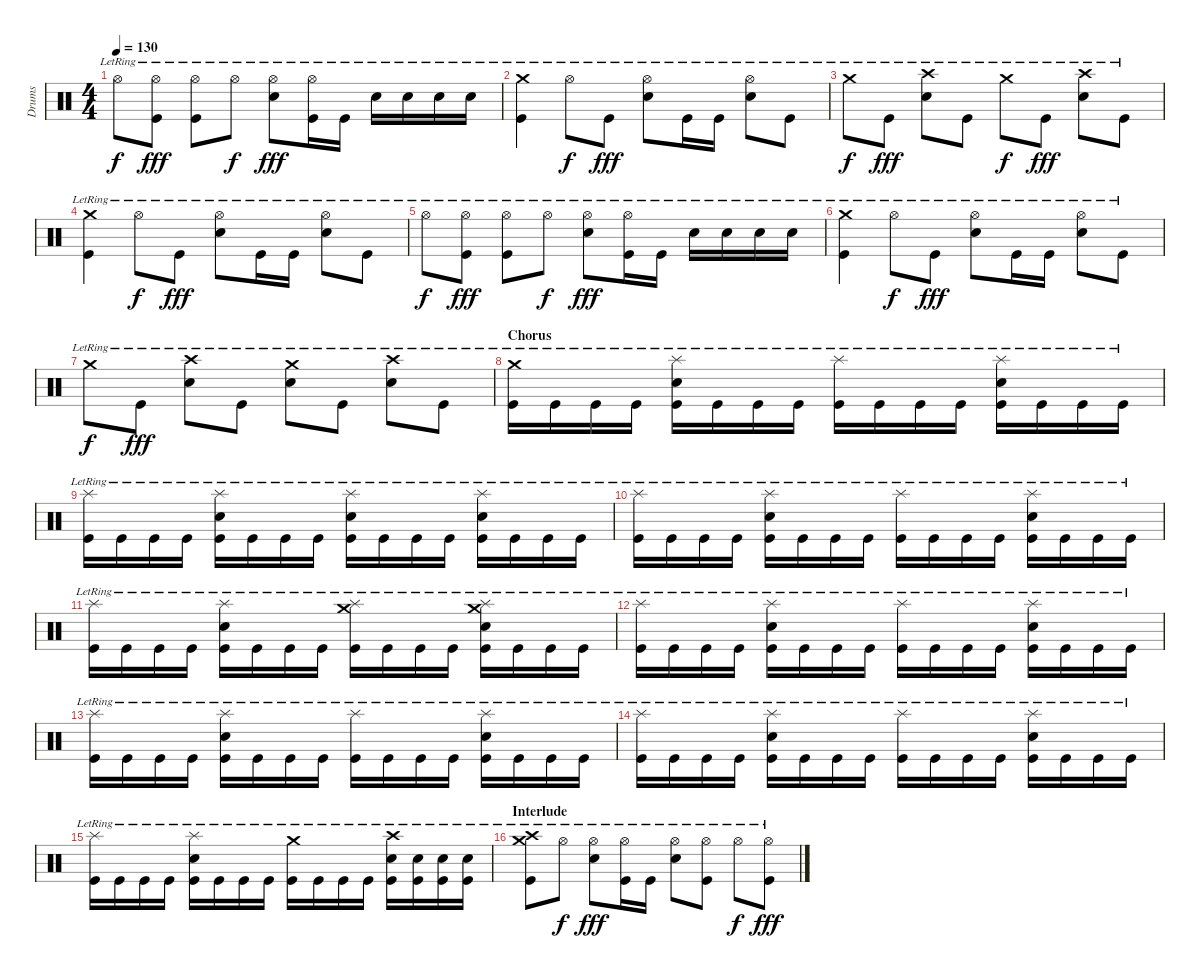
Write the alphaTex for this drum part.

\track ("Drums" "Drums") {instrument percussion}
\staff {score}
\articulation defaults
\ts (4 4)
\tempo 130
\clef neutral
\ks c "Hi-Hat (open)"{lr}.8{dy f}
("Kick (hit)"{lr} "Hi-Hat (open)"{lr}).8{dy fff} ("Kick (hit)"{lr} "Hi-Hat (open)"{lr}).8 "Hi-Hat (open)"{lr}.8{dy f} ("Snare (hit) 2"{lr} "Hi-Hat (open)"{lr}).8{dy fff} ("Kick (hit)"{lr} "Hi-Hat (open)"{lr}).16 "Kick (hit)"{lr}.16 "Snare (hit) 2"{lr}.16 "Snare (hit) 2"{lr}.16 "Snare (hit) 2"{lr}.16 "Snare (hit) 2"{lr}.16 |
("Kick (hit)"{lr} "Crash medium (hit)"{lr}).4 "Hi-Hat (open)"{lr}.8{dy f} "Kick (hit)"{lr}.8{dy fff} ("Snare (hit) 2"{lr} "Hi-Hat (open)"{lr}).8 "Kick (hit)"{lr}.16 "Kick (hit)"{lr}.16 ("Snare (hit) 2"{lr} "Hi-Hat (open)"{lr}).8 "Kick (hit)"{lr}.8 |
"Crash medium (hit)"{lr}.8{dy f} "Kick (hit)"{lr}.8{dy fff} ("Snare (hit) 2"{lr} "Crash high (hit)"{lr}).8 "Kick (hit)"{lr}.8 "Crash medium (hit)"{lr}.8{dy f} "Kick (hit)"{lr}.8{dy fff} ("Snare (hit) 2"{lr} "Crash high (hit)"{lr}).8 "Kick (hit)"{lr}.8 |
("Kick (hit)"{lr} "Crash medium (hit)"{lr}).4 "Hi-Hat (open)"{lr}.8{dy f} "Kick (hit)"{lr}.8{dy fff} ("Snare (hit) 2"{lr} "Hi-Hat (open)"{lr}).8 "Kick (hit)"{lr}.16 "Kick (hit)"{lr}.16 ("Snare (hit) 2"{lr} "Hi-Hat (open)"{lr}).8 "Kick (hit)"{lr}.8 |
"Hi-Hat (open)"{lr}.8{dy f} ("Kick (hit)"{lr} "Hi-Hat (open)"{lr}).8{dy fff} ("Kick (hit)"{lr} "Hi-Hat (open)"{lr}).8 "Hi-Hat (open)"{lr}.8{dy f} ("Snare (hit) 2"{lr} "Hi-Hat (open)"{lr}).8{dy fff} ("Kick (hit)"{lr} "Hi-Hat (open)"{lr}).16 "Kick (hit)"{lr}.16 "Snare (hit) 2"{lr}.16 "Snare (hit) 2"{lr}.16 "Snare (hit) 2"{lr}.16 "Snare (hit) 2"{lr}.16 |
("Kick (hit)"{lr} "Crash medium (hit)"{lr}).4 "Hi-Hat (open)"{lr}.8{dy f} "Kick (hit)"{lr}.8{dy fff} ("Snare (hit) 2"{lr} "Hi-Hat (open)"{lr}).8 "Kick (hit)"{lr}.16 "Kick (hit)"{lr}.16 ("Snare (hit) 2"{lr} "Hi-Hat (open)"{lr}).8 "Kick (hit)"{lr}.8 |
"Crash medium (hit)"{lr}.8{dy f} "Kick (hit)"{lr}.8{dy fff} ("Snare (hit) 2"{lr} "Crash high (hit)"{lr}).8 "Kick (hit)"{lr}.8 ("Snare (hit) 2"{lr} "Crash medium (hit)"{lr}).8 "Kick (hit)"{lr}.8 ("Snare (hit) 2"{lr} "Crash high (hit)"{lr}).8 "Kick (hit)"{lr}.8 |
\section ("" "Chorus")
("Kick (hit)"{lr} "Crash medium (hit)"{lr}).16 "Kick (hit)"{lr}.16 "Kick (hit)"{lr}.16 "Kick (hit)"{lr}.16 ("Kick (hit)"{lr} "Snare (hit) 2"{lr} "Splash (hit)"{lr}).16 "Kick (hit)"{lr}.16 "Kick (hit)"{lr}.16 "Kick (hit)"{lr}.16 ("Kick (hit)"{lr} "Splash (hit)"{lr}).16 "Kick (hit)"{lr}.16 "Kick (hit)"{lr}.16 "Kick (hit)"{lr}.16 ("Kick (hit)"{lr} "Snare (hit) 2"{lr} "Splash (hit)"{lr}).16 "Kick (hit)"{lr}.16 "Kick (hit)"{lr}.16 "Kick (hit)"{lr}.16 |
("Kick (hit)"{lr} "Splash (hit)"{lr}).16 "Kick (hit)"{lr}.16 "Kick (hit)"{lr}.16 "Kick (hit)"{lr}.16 ("Kick (hit)"{lr} "Snare (hit) 2"{lr} "Splash (hit)"{lr}).16 "Kick (hit)"{lr}.16 "Kick (hit)"{lr}.16 "Kick (hit)"{lr}.16 ("Kick (hit)"{lr} "Snare (hit) 2"{lr} "Splash (hit)"{lr}).16 "Kick (hit)"{lr}.16 "Kick (hit)"{lr}.16 "Kick (hit)"{lr}.16 ("Kick (hit)"{lr} "Snare (hit) 2"{lr} "Splash (hit)"{lr}).16 "Kick (hit)"{lr}.16 "Kick (hit)"{lr}.16 "Kick (hit)"{lr}.16 |
("Kick (hit)"{lr} "Splash (hit)"{lr}).16 "Kick (hit)"{lr}.16 "Kick (hit)"{lr}.16 "Kick (hit)"{lr}.16 ("Kick (hit)"{lr} "Snare (hit) 2"{lr} "Splash (hit)"{lr}).16 "Kick (hit)"{lr}.16 "Kick (hit)"{lr}.16 "Kick (hit)"{lr}.16 ("Kick (hit)"{lr} "Splash (hit)"{lr}).16 "Kick (hit)"{lr}.16 "Kick (hit)"{lr}.16 "Kick (hit)"{lr}.16 ("Kick (hit)"{lr} "Snare (hit) 2"{lr} "Splash (hit)"{lr}).16 "Kick (hit)"{lr}.16 "Kick (hit)"{lr}.16 "Kick (hit)"{lr}.16 |
("Kick (hit)"{lr} "Splash (hit)"{lr}).16 "Kick (hit)"{lr}.16 "Kick (hit)"{lr}.16 "Kick (hit)"{lr}.16 ("Kick (hit)"{lr} "Snare (hit) 2"{lr} "Splash (hit)"{lr}).16 "Kick (hit)"{lr}.16 "Kick (hit)"{lr}.16 "Kick (hit)"{lr}.16 ("Kick (hit)"{lr} "Splash (hit)"{lr} "Crash medium (hit)"{lr}).16 "Kick (hit)"{lr}.16 "Kick (hit)"{lr}.16 "Kick (hit)"{lr}.16 ("Kick (hit)"{lr} "Snare (hit) 2"{lr} "Splash (hit)"{lr} "Crash medium (hit)"{lr}).16 "Kick (hit)"{lr}.16 "Kick (hit)"{lr}.16 "Kick (hit)"{lr}.16 |
("Kick (hit)"{lr} "Splash (hit)"{lr}).16 "Kick (hit)"{lr}.16 "Kick (hit)"{lr}.16 "Kick (hit)"{lr}.16 ("Kick (hit)"{lr} "Snare (hit) 2"{lr} "Splash (hit)"{lr}).16 "Kick (hit)"{lr}.16 "Kick (hit)"{lr}.16 "Kick (hit)"{lr}.16 ("Kick (hit)"{lr} "Splash (hit)"{lr}).16 "Kick (hit)"{lr}.16 "Kick (hit)"{lr}.16 "Kick (hit)"{lr}.16 ("Kick (hit)"{lr} "Snare (hit) 2"{lr} "Splash (hit)"{lr}).16 "Kick (hit)"{lr}.16 "Kick (hit)"{lr}.16 "Kick (hit)"{lr}.16 |
("Kick (hit)"{lr} "Splash (hit)"{lr}).16 "Kick (hit)"{lr}.16 "Kick (hit)"{lr}.16 "Kick (hit)"{lr}.16 ("Kick (hit)"{lr} "Snare (hit) 2"{lr} "Splash (hit)"{lr}).16 "Kick (hit)"{lr}.16 "Kick (hit)"{lr}.16 "Kick (hit)"{lr}.16 ("Kick (hit)"{lr} "Splash (hit)"{lr}).16 "Kick (hit)"{lr}.16 "Kick (hit)"{lr}.16 "Kick (hit)"{lr}.16 ("Kick (hit)"{lr} "Snare (hit) 2"{lr} "Splash (hit)"{lr}).16 "Kick (hit)"{lr}.16 "Kick (hit)"{lr}.16 "Kick (hit)"{lr}.16 |
("Kick (hit)"{lr} "Splash (hit)"{lr}).16 "Kick (hit)"{lr}.16 "Kick (hit)"{lr}.16 "Kick (hit)"{lr}.16 ("Kick (hit)"{lr} "Snare (hit) 2"{lr} "Splash (hit)"{lr}).16 "Kick (hit)"{lr}.16 "Kick (hit)"{lr}.16 "Kick (hit)"{lr}.16 ("Kick (hit)"{lr} "Splash (hit)"{lr}).16 "Kick (hit)"{lr}.16 "Kick (hit)"{lr}.16 "Kick (hit)"{lr}.16 ("Kick (hit)"{lr} "Snare (hit) 2"{lr} "Splash (hit)"{lr}).16 "Kick (hit)"{lr}.16 "Kick (hit)"{lr}.16 "Kick (hit)"{lr}.16 |
("Kick (hit)"{lr} "Splash (hit)"{lr}).16 "Kick (hit)"{lr}.16 "Kick (hit)"{lr}.16 "Kick (hit)"{lr}.16 ("Kick (hit)"{lr} "Snare (hit) 2"{lr} "Splash (hit)"{lr}).16 "Kick (hit)"{lr}.16 "Kick (hit)"{lr}.16 "Kick (hit)"{lr}.16 ("Kick (hit)"{lr} "Crash medium (hit)"{lr}).16 "Kick (hit)"{lr}.16 "Kick (hit)"{lr}.16 "Kick (hit)"{lr}.16 ("Kick (hit)"{lr} "Snare (hit) 2"{lr} "Crash high (hit)"{lr}).16 ("Kick (hit)"{lr} "Snare (hit) 2"{lr}).16 ("Kick (hit)"{lr} "Snare (hit) 2"{lr}).16 ("Kick (hit)"{lr} "Snare (hit) 2"{lr}).16 |
\section ("" "Interlude")
("Kick (hit)"{lr} "Crash high (hit)"{lr} "Crash medium (hit)"{lr}).8 "Hi-Hat (open)"{lr}.8{dy f} ("Snare (hit) 2"{lr} "Hi-Hat (open)"{lr}).8{dy fff} ("Kick (hit)"{lr} "Hi-Hat (open)"{lr}).16 "Kick (hit)"{lr}.16 ("Snare (hit) 2"{lr} "Hi-Hat (open)"{lr}).8 ("Kick (hit)"{lr} "Hi-Hat (open)"{lr}).8 "Hi-Hat (open)"{lr}.8{dy f} ("Kick (hit)"{lr} "Hi-Hat (open)"{lr}).8{dy fff}
